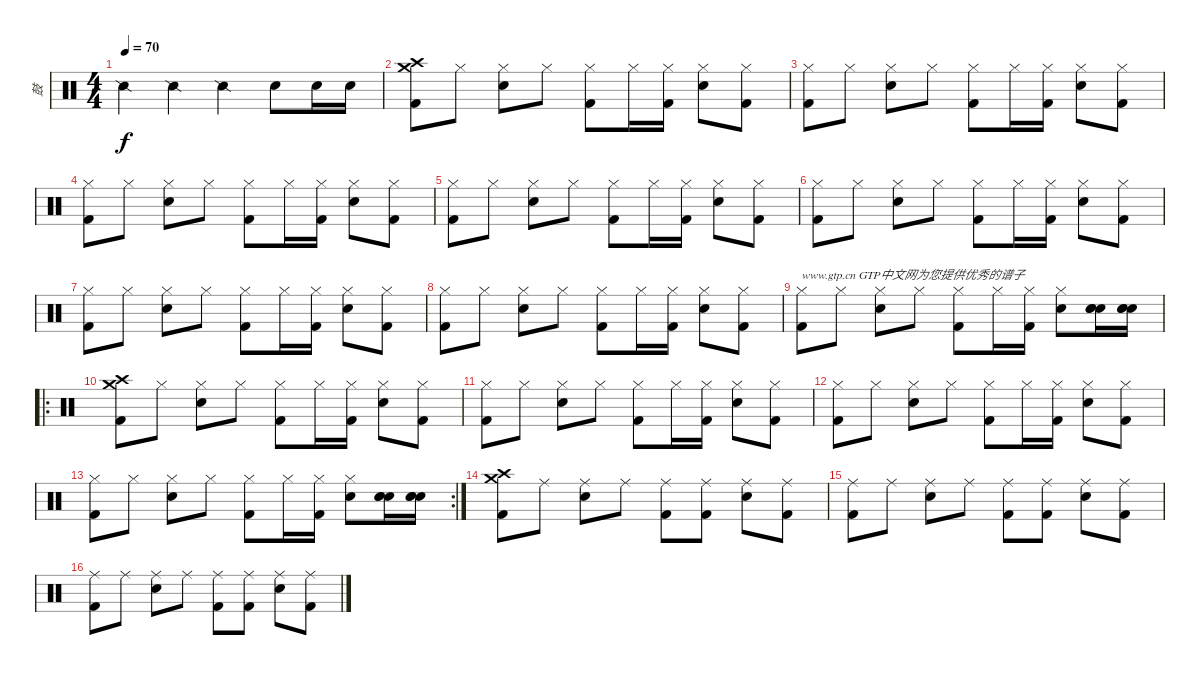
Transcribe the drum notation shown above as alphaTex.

\track ("鼓" "鼓") {instrument percussion}
\staff {score}
\articulation defaults
\ts (4 4)
\tempo 70
\clef neutral
\ks c "Snare (side stick) 2".4{dy f} "Snare (side stick) 2".4 "Snare (side stick) 2".4 "Snare (hit) 2".8 "Snare (hit) 2".16 "Snare (hit) 2".16
|
("Kick (hit) 2" "Crash high (hit)" "Crash medium (hit)").8 "Hi-Hat (closed)".8 ("Electric Snare (hit)" "Hi-Hat (closed)").8 "Hi-Hat (closed)".8 ("Kick (hit) 2" "Hi-Hat (closed)").8 "Hi-Hat (closed)".16 ("Kick (hit) 2" "Hi-Hat (closed)").16 ("Electric Snare (hit)" "Hi-Hat (closed)").8 ("Kick (hit) 2" "Hi-Hat (closed)").8 |
("Kick (hit) 2" "Hi-Hat (closed)").8 "Hi-Hat (closed)".8 ("Electric Snare (hit)" "Hi-Hat (closed)").8 "Hi-Hat (closed)".8 ("Kick (hit) 2" "Hi-Hat (closed)").8 "Hi-Hat (closed)".16 ("Kick (hit) 2" "Hi-Hat (closed)").16 ("Electric Snare (hit)" "Hi-Hat (closed)").8 ("Kick (hit) 2" "Hi-Hat (closed)").8 |
("Kick (hit) 2" "Hi-Hat (closed)").8 "Hi-Hat (closed)".8 ("Electric Snare (hit)" "Hi-Hat (closed)").8 "Hi-Hat (closed)".8 ("Kick (hit) 2" "Hi-Hat (closed)").8 "Hi-Hat (closed)".16 ("Kick (hit) 2" "Hi-Hat (closed)").16 ("Electric Snare (hit)" "Hi-Hat (closed)").8 ("Kick (hit) 2" "Hi-Hat (closed)").8 |
("Kick (hit) 2" "Hi-Hat (closed)").8 "Hi-Hat (closed)".8 ("Electric Snare (hit)" "Hi-Hat (closed)").8 "Hi-Hat (closed)".8 ("Kick (hit) 2" "Hi-Hat (closed)").8 "Hi-Hat (closed)".16 ("Kick (hit) 2" "Hi-Hat (closed)").16 ("Electric Snare (hit)" "Hi-Hat (closed)").8 ("Kick (hit) 2" "Hi-Hat (closed)").8 |
("Kick (hit) 2" "Hi-Hat (closed)").8 "Hi-Hat (closed)".8 ("Electric Snare (hit)" "Hi-Hat (closed)").8 "Hi-Hat (closed)".8 ("Kick (hit) 2" "Hi-Hat (closed)").8 "Hi-Hat (closed)".16 ("Kick (hit) 2" "Hi-Hat (closed)").16 ("Electric Snare (hit)" "Hi-Hat (closed)").8 ("Kick (hit) 2" "Hi-Hat (closed)").8 |
("Kick (hit) 2" "Hi-Hat (closed)").8 "Hi-Hat (closed)".8 ("Electric Snare (hit)" "Hi-Hat (closed)").8 "Hi-Hat (closed)".8 ("Kick (hit) 2" "Hi-Hat (closed)").8 "Hi-Hat (closed)".16 ("Kick (hit) 2" "Hi-Hat (closed)").16 ("Electric Snare (hit)" "Hi-Hat (closed)").8 ("Kick (hit) 2" "Hi-Hat (closed)").8 |
("Kick (hit) 2" "Hi-Hat (closed)").8 "Hi-Hat (closed)".8 ("Electric Snare (hit)" "Hi-Hat (closed)").8 "Hi-Hat (closed)".8 ("Kick (hit) 2" "Hi-Hat (closed)").8 "Hi-Hat (closed)".16 ("Kick (hit) 2" "Hi-Hat (closed)").16 ("Electric Snare (hit)" "Hi-Hat (closed)").8 ("Kick (hit) 2" "Hi-Hat (closed)").8 |
("Kick (hit) 2" "Hi-Hat (closed)").8{txt "www.gtp.cn GTP中文网为您提供优秀的谱子"} "Hi-Hat (closed)".8 ("Electric Snare (hit)" "Hi-Hat (closed)").8 "Hi-Hat (closed)".8 ("Kick (hit) 2" "Hi-Hat (closed)").8 "Hi-Hat (closed)".16 ("Kick (hit) 2" "Hi-Hat (closed)").16 ("Electric Snare (hit)" "Hi-Hat (closed)").8 ("Electric Snare (hit)" "Electric Snare (hit)" "Electric Snare (hit)").16 ("Electric Snare (hit)" "Electric Snare (hit)" "Electric Snare (hit)").16 |
\ro
("Kick (hit) 2" "Crash high (hit)" "Crash medium (hit)").8 "Hi-Hat (closed)".8 ("Electric Snare (hit)" "Hi-Hat (closed)").8 "Hi-Hat (closed)".8 ("Kick (hit) 2" "Hi-Hat (closed)").8 "Hi-Hat (closed)".16 ("Kick (hit) 2" "Hi-Hat (closed)").16 ("Electric Snare (hit)" "Hi-Hat (closed)").8 ("Kick (hit) 2" "Hi-Hat (closed)").8 |
("Kick (hit) 2" "Hi-Hat (closed)").8 "Hi-Hat (closed)".8 ("Electric Snare (hit)" "Hi-Hat (closed)").8 "Hi-Hat (closed)".8 ("Kick (hit) 2" "Hi-Hat (closed)").8 "Hi-Hat (closed)".16 ("Kick (hit) 2" "Hi-Hat (closed)").16 ("Electric Snare (hit)" "Hi-Hat (closed)").8 ("Kick (hit) 2" "Hi-Hat (closed)").8 |
("Kick (hit) 2" "Hi-Hat (closed)").8 "Hi-Hat (closed)".8 ("Electric Snare (hit)" "Hi-Hat (closed)").8 "Hi-Hat (closed)".8 ("Kick (hit) 2" "Hi-Hat (closed)").8 "Hi-Hat (closed)".16 ("Kick (hit) 2" "Hi-Hat (closed)").16 ("Electric Snare (hit)" "Hi-Hat (closed)").8 ("Kick (hit) 2" "Hi-Hat (closed)").8 |
\rc 2
("Kick (hit) 2" "Hi-Hat (closed)").8 "Hi-Hat (closed)".8 ("Electric Snare (hit)" "Hi-Hat (closed)").8 "Hi-Hat (closed)".8 ("Kick (hit) 2" "Hi-Hat (closed)").8 "Hi-Hat (closed)".16 ("Kick (hit) 2" "Hi-Hat (closed)").16 ("Electric Snare (hit)" "Hi-Hat (closed)").8 ("Electric Snare (hit)" "Electric Snare (hit)" "Electric Snare (hit)").16 ("Electric Snare (hit)" "Electric Snare (hit)" "Electric Snare (hit)").16 |
("Kick (hit) 2" "Crash high (hit)" "Crash medium (hit)").8 "Ride (middle)".8 ("Electric Snare (hit)" "Ride (middle)").8 "Ride (middle)".8 ("Kick (hit) 2" "Ride (middle)").8 ("Kick (hit) 2" "Ride (middle)").8 ("Electric Snare (hit)" "Ride (middle)").8 ("Kick (hit) 2" "Ride (middle)").8 |
("Kick (hit) 2" "Ride (middle)").8 "Ride (middle)".8 ("Electric Snare (hit)" "Ride (middle)").8 "Ride (middle)".8 ("Kick (hit) 2" "Ride (middle)").8 ("Kick (hit) 2" "Ride (middle)").8 ("Electric Snare (hit)" "Ride (middle)").8 ("Kick (hit) 2" "Ride (middle)").8 |
("Kick (hit) 2" "Ride (middle)").8 "Ride (middle)".8 ("Electric Snare (hit)" "Ride (middle)").8 "Ride (middle)".8 ("Kick (hit) 2" "Ride (middle)").8 ("Kick (hit) 2" "Ride (middle)").8 ("Electric Snare (hit)" "Ride (middle)").8 ("Kick (hit) 2" "Ride (middle)").8
